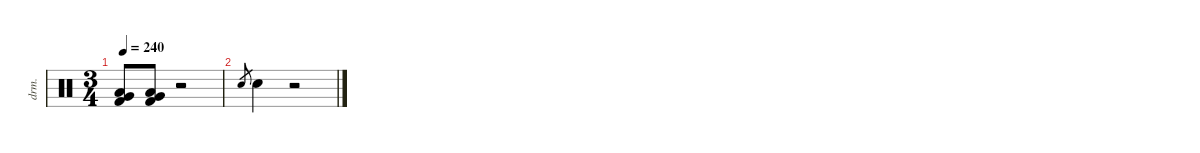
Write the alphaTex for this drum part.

\defaultSystemsLayout 4
\hideDynamics
\bracketExtendMode nobrackets
\track ("dany" "drm.") {instrument percussion}
\staff {score}
\articulation defaults
\ts (3 4)
\tempo 240
\clef neutral
\ks c
("Kick (hit) 2" "Low Tom (hit)" "Very Low Tom (hit)").8{dy f beam Up} ("Kick (hit) 2" "Low Tom (hit)" "Very Low Tom (hit)").8{beam Up} r.2{beam Down} |
"Snare (hit) 2".8{gr dy mf beam Up} "Snare (hit) 2".4{dy f beam Down} r.2{beam Down}
